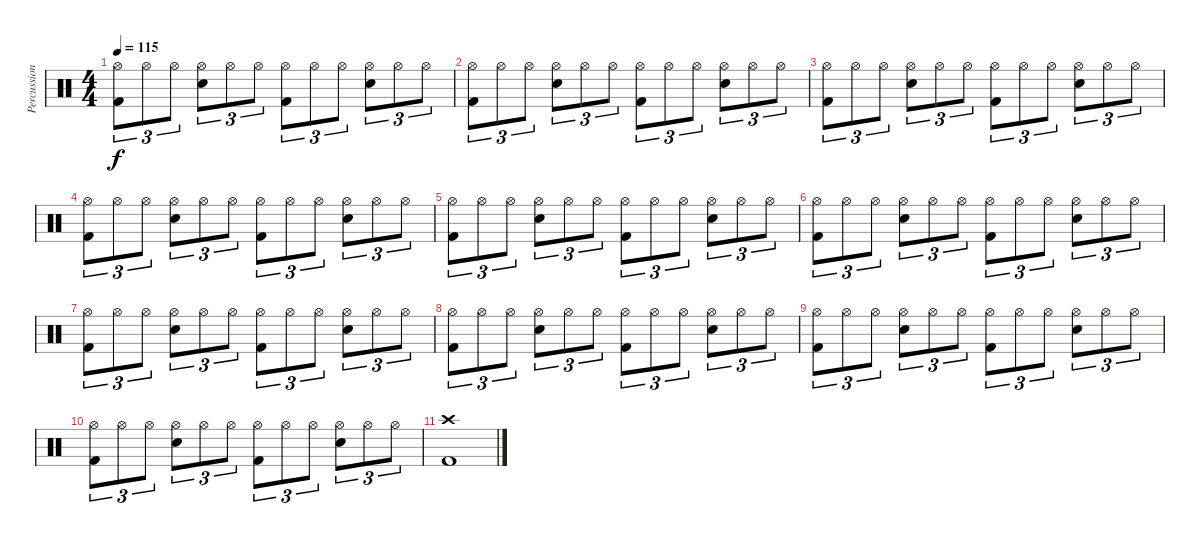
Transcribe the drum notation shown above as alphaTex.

\track ("Percussion" "Percussion") {instrument percussion}
\staff {score}
\articulation defaults
\ts (4 4)
\tempo 115
\clef neutral
\ks c
("Hi-Hat (open)" "Kick (hit) 2").8{tu (3 2) dy f} "Hi-Hat (open)".8{tu (3 2)} "Hi-Hat (open)".8{tu (3 2)} ("Hi-Hat (open)" "Snare (hit) 2").8{tu (3 2)} "Hi-Hat (open)".8{tu (3 2)} "Hi-Hat (open)".8{tu (3 2)} ("Hi-Hat (open)" "Kick (hit) 2").8{tu (3 2)} "Hi-Hat (open)".8{tu (3 2)} "Hi-Hat (open)".8{tu (3 2)} ("Hi-Hat (open)" "Snare (hit) 2").8{tu (3 2)} "Hi-Hat (open)".8{tu (3 2)} "Hi-Hat (open)".8{tu (3 2)} |
("Hi-Hat (open)" "Kick (hit) 2").8{tu (3 2)} "Hi-Hat (open)".8{tu (3 2)} "Hi-Hat (open)".8{tu (3 2)} ("Hi-Hat (open)" "Snare (hit) 2").8{tu (3 2)} "Hi-Hat (open)".8{tu (3 2)} "Hi-Hat (open)".8{tu (3 2)} ("Hi-Hat (open)" "Kick (hit) 2").8{tu (3 2)} "Hi-Hat (open)".8{tu (3 2)} "Hi-Hat (open)".8{tu (3 2)} ("Hi-Hat (open)" "Snare (hit) 2").8{tu (3 2)} "Hi-Hat (open)".8{tu (3 2)} "Hi-Hat (open)".8{tu (3 2)} |
("Hi-Hat (open)" "Kick (hit) 2").8{tu (3 2)} "Hi-Hat (open)".8{tu (3 2)} "Hi-Hat (open)".8{tu (3 2)} ("Hi-Hat (open)" "Snare (hit) 2").8{tu (3 2)} "Hi-Hat (open)".8{tu (3 2)} "Hi-Hat (open)".8{tu (3 2)} ("Hi-Hat (open)" "Kick (hit) 2").8{tu (3 2)} "Hi-Hat (open)".8{tu (3 2)} "Hi-Hat (open)".8{tu (3 2)} ("Hi-Hat (open)" "Snare (hit) 2").8{tu (3 2)} "Hi-Hat (open)".8{tu (3 2)} "Hi-Hat (open)".8{tu (3 2)} |
("Hi-Hat (open)" "Kick (hit) 2").8{tu (3 2)} "Hi-Hat (open)".8{tu (3 2)} "Hi-Hat (open)".8{tu (3 2)} ("Hi-Hat (open)" "Snare (hit) 2").8{tu (3 2)} "Hi-Hat (open)".8{tu (3 2)} "Hi-Hat (open)".8{tu (3 2)} ("Hi-Hat (open)" "Kick (hit) 2").8{tu (3 2)} "Hi-Hat (open)".8{tu (3 2)} "Hi-Hat (open)".8{tu (3 2)} ("Hi-Hat (open)" "Snare (hit) 2").8{tu (3 2)} "Hi-Hat (open)".8{tu (3 2)} "Hi-Hat (open)".8{tu (3 2)} |
("Hi-Hat (open)" "Kick (hit) 2").8{tu (3 2)} "Hi-Hat (open)".8{tu (3 2)} "Hi-Hat (open)".8{tu (3 2)} ("Hi-Hat (open)" "Snare (hit) 2").8{tu (3 2)} "Hi-Hat (open)".8{tu (3 2)} "Hi-Hat (open)".8{tu (3 2)} ("Hi-Hat (open)" "Kick (hit) 2").8{tu (3 2)} "Hi-Hat (open)".8{tu (3 2)} "Hi-Hat (open)".8{tu (3 2)} ("Hi-Hat (open)" "Snare (hit) 2").8{tu (3 2)} "Hi-Hat (open)".8{tu (3 2)} "Hi-Hat (open)".8{tu (3 2)} |
("Hi-Hat (open)" "Kick (hit) 2").8{tu (3 2)} "Hi-Hat (open)".8{tu (3 2)} "Hi-Hat (open)".8{tu (3 2)} ("Hi-Hat (open)" "Snare (hit) 2").8{tu (3 2)} "Hi-Hat (open)".8{tu (3 2)} "Hi-Hat (open)".8{tu (3 2)} ("Hi-Hat (open)" "Kick (hit) 2").8{tu (3 2)} "Hi-Hat (open)".8{tu (3 2)} "Hi-Hat (open)".8{tu (3 2)} ("Hi-Hat (open)" "Snare (hit) 2").8{tu (3 2)} "Hi-Hat (open)".8{tu (3 2)} "Hi-Hat (open)".8{tu (3 2)} |
("Hi-Hat (open)" "Kick (hit) 2").8{tu (3 2)} "Hi-Hat (open)".8{tu (3 2)} "Hi-Hat (open)".8{tu (3 2)} ("Hi-Hat (open)" "Snare (hit) 2").8{tu (3 2)} "Hi-Hat (open)".8{tu (3 2)} "Hi-Hat (open)".8{tu (3 2)} ("Hi-Hat (open)" "Kick (hit) 2").8{tu (3 2)} "Hi-Hat (open)".8{tu (3 2)} "Hi-Hat (open)".8{tu (3 2)} ("Hi-Hat (open)" "Snare (hit) 2").8{tu (3 2)} "Hi-Hat (open)".8{tu (3 2)} "Hi-Hat (open)".8{tu (3 2)} |
("Hi-Hat (open)" "Kick (hit) 2").8{tu (3 2)} "Hi-Hat (open)".8{tu (3 2)} "Hi-Hat (open)".8{tu (3 2)} ("Hi-Hat (open)" "Snare (hit) 2").8{tu (3 2)} "Hi-Hat (open)".8{tu (3 2)} "Hi-Hat (open)".8{tu (3 2)} ("Hi-Hat (open)" "Kick (hit) 2").8{tu (3 2)} "Hi-Hat (open)".8{tu (3 2)} "Hi-Hat (open)".8{tu (3 2)} ("Hi-Hat (open)" "Snare (hit) 2").8{tu (3 2)} "Hi-Hat (open)".8{tu (3 2)} "Hi-Hat (open)".8{tu (3 2)} |
("Hi-Hat (open)" "Kick (hit) 2").8{tu (3 2)} "Hi-Hat (open)".8{tu (3 2)} "Hi-Hat (open)".8{tu (3 2)} ("Hi-Hat (open)" "Snare (hit) 2").8{tu (3 2)} "Hi-Hat (open)".8{tu (3 2)} "Hi-Hat (open)".8{tu (3 2)} ("Hi-Hat (open)" "Kick (hit) 2").8{tu (3 2)} "Hi-Hat (open)".8{tu (3 2)} "Hi-Hat (open)".8{tu (3 2)} ("Hi-Hat (open)" "Snare (hit) 2").8{tu (3 2)} "Hi-Hat (open)".8{tu (3 2)} "Hi-Hat (open)".8{tu (3 2)} |
("Hi-Hat (open)" "Kick (hit) 2").8{tu (3 2)} "Hi-Hat (open)".8{tu (3 2)} "Hi-Hat (open)".8{tu (3 2)} ("Hi-Hat (open)" "Snare (hit) 2").8{tu (3 2)} "Hi-Hat (open)".8{tu (3 2)} "Hi-Hat (open)".8{tu (3 2)} ("Hi-Hat (open)" "Kick (hit) 2").8{tu (3 2)} "Hi-Hat (open)".8{tu (3 2)} "Hi-Hat (open)".8{tu (3 2)} ("Hi-Hat (open)" "Snare (hit) 2").8{tu (3 2)} "Hi-Hat (open)".8{tu (3 2)} "Hi-Hat (open)".8{tu (3 2)} |
("Crash high (hit)" "Kick (hit) 2").1
